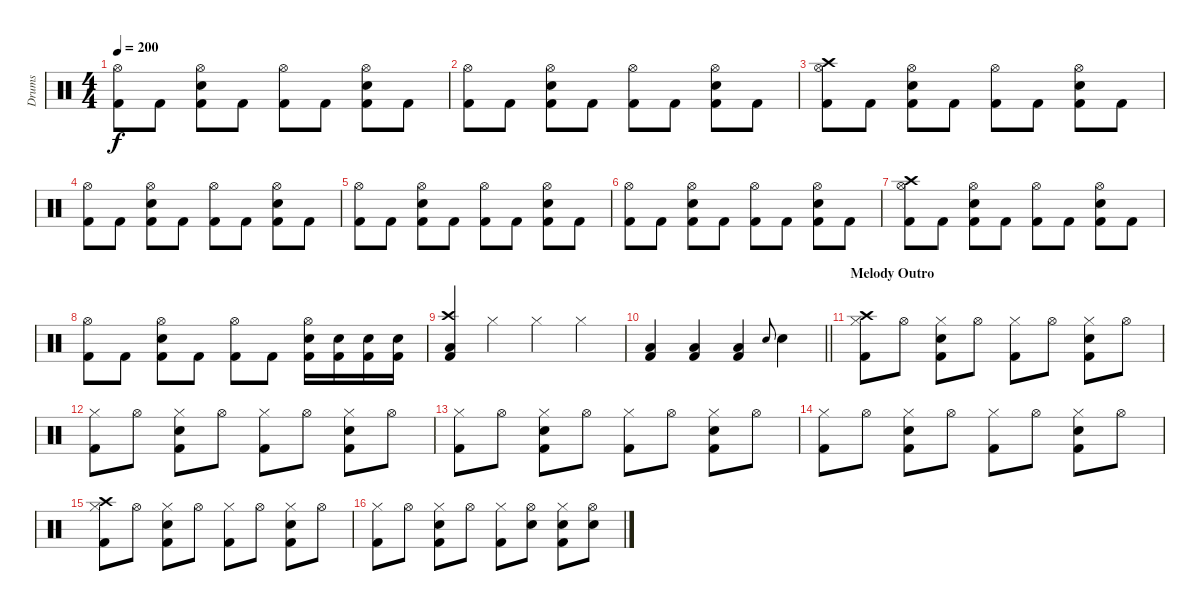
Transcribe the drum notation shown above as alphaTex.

\track ("Drums" "Drums") {instrument percussion}
\staff {score}
\articulation defaults
\ts (4 4)
\tempo 200
\clef neutral
\ks c
("Hi-Hat (open)" "Kick (hit) 2").8{dy f} "Kick (hit) 2".8 ("Hi-Hat (open)" "Snare (hit) 2" "Kick (hit) 2").8 "Kick (hit) 2".8 ("Hi-Hat (open)" "Kick (hit) 2").8 "Kick (hit) 2".8 ("Hi-Hat (open)" "Snare (hit) 2" "Kick (hit) 2").8 "Kick (hit) 2".8 |
("Hi-Hat (open)" "Kick (hit) 2").8 "Kick (hit) 2".8 ("Hi-Hat (open)" "Snare (hit) 2" "Kick (hit) 2").8 "Kick (hit) 2".8 ("Hi-Hat (open)" "Kick (hit) 2").8 "Kick (hit) 2".8 ("Hi-Hat (open)" "Snare (hit) 2" "Kick (hit) 2").8 "Kick (hit) 2".8 |
("Crash high (hit)" "Hi-Hat (open)" "Kick (hit) 2").8 "Kick (hit) 2".8 ("Hi-Hat (open)" "Snare (hit) 2" "Kick (hit) 2").8 "Kick (hit) 2".8 ("Hi-Hat (open)" "Kick (hit) 2").8 "Kick (hit) 2".8 ("Hi-Hat (open)" "Snare (hit) 2" "Kick (hit) 2").8 "Kick (hit) 2".8 |
("Hi-Hat (open)" "Kick (hit) 2").8 "Kick (hit) 2".8 ("Hi-Hat (open)" "Snare (hit) 2" "Kick (hit) 2").8 "Kick (hit) 2".8 ("Hi-Hat (open)" "Kick (hit) 2").8 "Kick (hit) 2".8 ("Hi-Hat (open)" "Snare (hit) 2" "Kick (hit) 2").8 "Kick (hit) 2".8 |
("Hi-Hat (open)" "Kick (hit) 2").8 "Kick (hit) 2".8 ("Hi-Hat (open)" "Snare (hit) 2" "Kick (hit) 2").8 "Kick (hit) 2".8 ("Hi-Hat (open)" "Kick (hit) 2").8 "Kick (hit) 2".8 ("Hi-Hat (open)" "Snare (hit) 2" "Kick (hit) 2").8 "Kick (hit) 2".8 |
("Hi-Hat (open)" "Kick (hit) 2").8 "Kick (hit) 2".8 ("Hi-Hat (open)" "Snare (hit) 2" "Kick (hit) 2").8 "Kick (hit) 2".8 ("Hi-Hat (open)" "Kick (hit) 2").8 "Kick (hit) 2".8 ("Hi-Hat (open)" "Snare (hit) 2" "Kick (hit) 2").8 "Kick (hit) 2".8 |
("Crash high (hit)" "Hi-Hat (open)" "Kick (hit) 2").8 "Kick (hit) 2".8 ("Hi-Hat (open)" "Snare (hit) 2" "Kick (hit) 2").8 "Kick (hit) 2".8 ("Hi-Hat (open)" "Kick (hit) 2").8 "Kick (hit) 2".8 ("Hi-Hat (open)" "Snare (hit) 2" "Kick (hit) 2").8 "Kick (hit) 2".8 |
("Hi-Hat (open)" "Kick (hit) 2").8 "Kick (hit) 2".8 ("Hi-Hat (open)" "Snare (hit) 2" "Kick (hit) 2").8 "Kick (hit) 2".8 ("Hi-Hat (open)" "Kick (hit) 2").8 "Kick (hit) 2".8 ("Hi-Hat (open)" "Snare (hit) 2" "Kick (hit) 2").16 ("Snare (hit) 2" "Kick (hit) 2").16 ("Snare (hit) 2" "Kick (hit) 2").16 ("Snare (hit) 2" "Kick (hit) 2").16 |
("Crash high (hit)" "Low Floor Tom (hit)" "Kick (hit) 2").4 "Hi-Hat (closed)".4 "Hi-Hat (closed)".4 "Hi-Hat (closed)".4 |
\barLineRight lightlight
("Low Floor Tom (hit)" "Kick (hit) 2").4 ("Low Floor Tom (hit)" "Kick (hit) 2").4 ("Low Floor Tom (hit)" "Kick (hit) 2").4 "Snare (hit) 2".8{gr onbeat} "Snare (hit) 2".4 |
\section ("" "Melody Outro")
("Crash high (hit)" "Hi-Hat (closed)" "Kick (hit) 2").8 "Hi-Hat (open)".8 ("Hi-Hat (closed)" "Snare (hit) 2" "Kick (hit) 2").8 "Hi-Hat (open)".8 ("Hi-Hat (closed)" "Kick (hit) 2").8 "Hi-Hat (open)".8 ("Hi-Hat (closed)" "Snare (hit) 2" "Kick (hit) 2").8 "Hi-Hat (open)".8 |
("Hi-Hat (closed)" "Kick (hit) 2").8 "Hi-Hat (open)".8 ("Hi-Hat (closed)" "Snare (hit) 2" "Kick (hit) 2").8 "Hi-Hat (open)".8 ("Hi-Hat (closed)" "Kick (hit) 2").8 "Hi-Hat (open)".8 ("Hi-Hat (closed)" "Snare (hit) 2" "Kick (hit) 2").8 "Hi-Hat (open)".8 |
("Hi-Hat (closed)" "Kick (hit) 2").8 "Hi-Hat (open)".8 ("Hi-Hat (closed)" "Snare (hit) 2" "Kick (hit) 2").8 "Hi-Hat (open)".8 ("Hi-Hat (closed)" "Kick (hit) 2").8 "Hi-Hat (open)".8 ("Hi-Hat (closed)" "Snare (hit) 2" "Kick (hit) 2").8 "Hi-Hat (open)".8 |
("Hi-Hat (closed)" "Kick (hit) 2").8 "Hi-Hat (open)".8 ("Hi-Hat (closed)" "Snare (hit) 2" "Kick (hit) 2").8 "Hi-Hat (open)".8 ("Hi-Hat (closed)" "Kick (hit) 2").8 "Hi-Hat (open)".8 ("Hi-Hat (closed)" "Snare (hit) 2" "Kick (hit) 2").8 "Hi-Hat (open)".8 |
("Crash high (hit)" "Hi-Hat (closed)" "Kick (hit) 2").8 "Hi-Hat (open)".8 ("Hi-Hat (closed)" "Snare (hit) 2" "Kick (hit) 2").8 "Hi-Hat (open)".8 ("Hi-Hat (closed)" "Kick (hit) 2").8 "Hi-Hat (open)".8 ("Hi-Hat (closed)" "Snare (hit) 2" "Kick (hit) 2").8 "Hi-Hat (open)".8 |
("Hi-Hat (closed)" "Kick (hit) 2").8 "Hi-Hat (open)".8 ("Hi-Hat (closed)" "Snare (hit) 2" "Kick (hit) 2").8 "Hi-Hat (open)".8 ("Hi-Hat (closed)" "Kick (hit) 2").8 ("Hi-Hat (open)" "Snare (hit) 2").8 ("Hi-Hat (closed)" "Snare (hit) 2" "Kick (hit) 2").8 ("Hi-Hat (open)" "Snare (hit) 2").8
